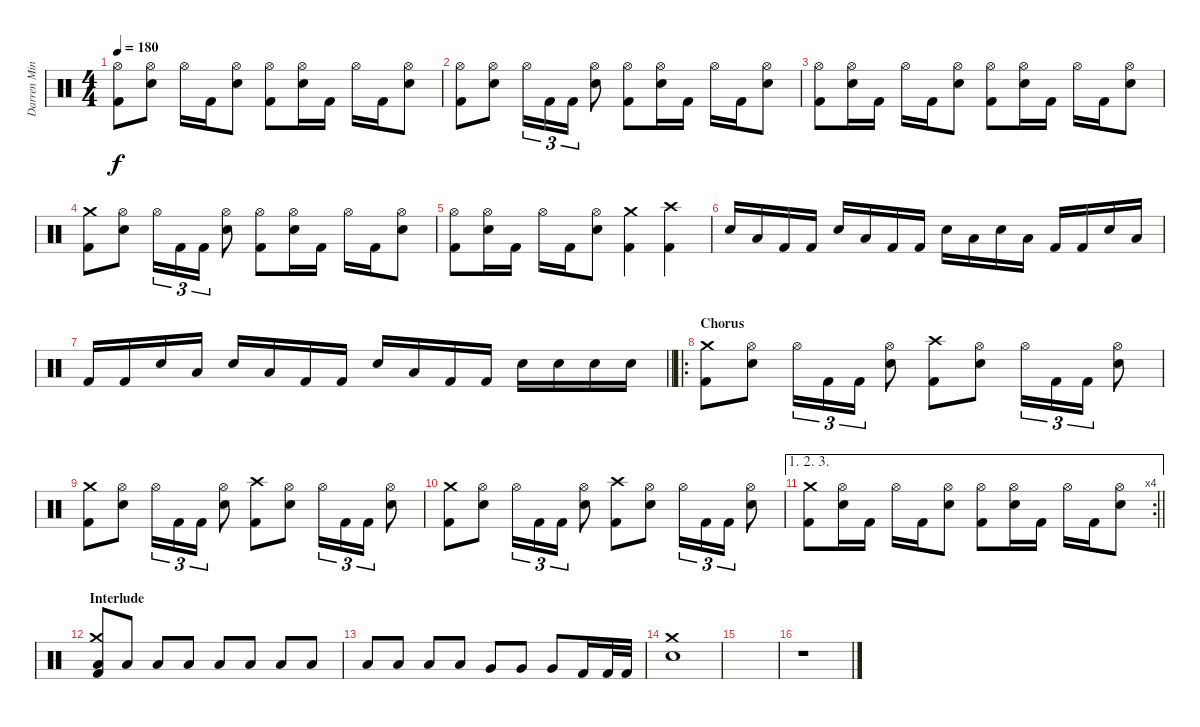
\track ("Darren Minter" "Darren Min") {instrument percussion}
\staff {score}
\articulation defaults
\ts (4 4)
\tempo 180
\clef neutral
\ks c
("Hi-Hat (open)" "Kick (hit) 2").8{dy f} ("Hi-Hat (open)" "Electric Snare (hit)").8 "Hi-Hat (open)".16 "Kick (hit) 2".16 ("Hi-Hat (open)" "Electric Snare (hit)").8 ("Hi-Hat (open)" "Kick (hit) 2").8 ("Hi-Hat (open)" "Electric Snare (hit)").16 "Kick (hit) 2".16 "Hi-Hat (open)".16 "Kick (hit) 2".16 ("Hi-Hat (open)" "Electric Snare (hit)").8 |
("Hi-Hat (open)" "Kick (hit) 2").8 ("Hi-Hat (open)" "Electric Snare (hit)").8 "Hi-Hat (open)".16{tu (3 2)} "Kick (hit) 2".16{tu (3 2)} "Kick (hit) 2".16{tu (3 2)} ("Hi-Hat (open)" "Electric Snare (hit)").8 ("Hi-Hat (open)" "Kick (hit) 2").8 ("Hi-Hat (open)" "Electric Snare (hit)").16 "Kick (hit) 2".16 "Hi-Hat (open)".16 "Kick (hit) 2".16 ("Hi-Hat (open)" "Electric Snare (hit)").8 |
("Hi-Hat (open)" "Kick (hit) 2").8 ("Hi-Hat (open)" "Electric Snare (hit)").16 "Kick (hit) 2".16 "Hi-Hat (open)".16 "Kick (hit) 2".16 ("Hi-Hat (open)" "Electric Snare (hit)").8 ("Hi-Hat (open)" "Kick (hit) 2").8 ("Hi-Hat (open)" "Electric Snare (hit)").16 "Kick (hit) 2".16 "Hi-Hat (open)".16 "Kick (hit) 2".16 ("Hi-Hat (open)" "Electric Snare (hit)").8 |
("Crash medium (hit)" "Kick (hit) 2").8 ("Hi-Hat (open)" "Electric Snare (hit)").8 "Hi-Hat (open)".16{tu (3 2)} "Kick (hit) 2".16{tu (3 2)} "Kick (hit) 2".16{tu (3 2)} ("Hi-Hat (open)" "Electric Snare (hit)").8 ("Hi-Hat (open)" "Kick (hit) 2").8 ("Hi-Hat (open)" "Electric Snare (hit)").16 "Kick (hit) 2".16 "Hi-Hat (open)".16 "Kick (hit) 2".16 ("Hi-Hat (open)" "Electric Snare (hit)").8 |
("Hi-Hat (open)" "Kick (hit) 2").8 ("Hi-Hat (open)" "Electric Snare (hit)").16 "Kick (hit) 2".16 "Hi-Hat (open)".16 "Kick (hit) 2".16 ("Hi-Hat (open)" "Electric Snare (hit)").8 ("Crash medium (hit)" "Kick (hit) 2").4 ("Crash high (hit)" "Kick (hit) 2").4 |
"Electric Snare (hit)".16 "Low Tom (hit)".16 "Kick (hit) 2".16 "Kick (hit) 2".16 "Electric Snare (hit)".16 "Low Tom (hit)".16 "Kick (hit) 2".16 "Kick (hit) 2".16 "Electric Snare (hit)".16 "Low Tom (hit)".16 "Electric Snare (hit)".16 "Low Tom (hit)".16 "Kick (hit) 2".16 "Kick (hit) 2".16 "Electric Snare (hit)".16 "Low Tom (hit)".16 |
\barLineRight lightlight "Kick (hit) 2".16 "Kick (hit) 2".16 "Electric Snare (hit)".16 "Low Tom (hit)".16 "Electric Snare (hit)".16 "Low Tom (hit)".16 "Kick (hit) 2".16 "Kick (hit) 2".16 "Electric Snare (hit)".16 "Low Tom (hit)".16 "Kick (hit) 2".16 "Kick (hit) 2".16 "Electric Snare (hit)".16 "Electric Snare (hit)".16 "Electric Snare (hit)".16 "Electric Snare (hit)".16
|
\ro
\section ("" "Chorus")
("Crash medium (hit)" "Kick (hit) 2").8 ("Hi-Hat (open)" "Electric Snare (hit)").8 "Hi-Hat (open)".16{tu (3 2)} "Kick (hit) 2".16{tu (3 2)} "Kick (hit) 2".16{tu (3 2)} ("Hi-Hat (open)" "Electric Snare (hit)").8 ("Crash high (hit)" "Kick (hit) 2").8 ("Hi-Hat (open)" "Electric Snare (hit)").8 "Hi-Hat (open)".16{tu (3 2)} "Kick (hit) 2".16{tu (3 2)} "Kick (hit) 2".16{tu (3 2)} ("Hi-Hat (open)" "Electric Snare (hit)").8 |
("Crash medium (hit)" "Kick (hit) 2").8 ("Hi-Hat (open)" "Electric Snare (hit)").8 "Hi-Hat (open)".16{tu (3 2)} "Kick (hit) 2".16{tu (3 2)} "Kick (hit) 2".16{tu (3 2)} ("Hi-Hat (open)" "Electric Snare (hit)").8 ("Crash high (hit)" "Kick (hit) 2").8 ("Hi-Hat (open)" "Electric Snare (hit)").8 "Hi-Hat (open)".16{tu (3 2)} "Kick (hit) 2".16{tu (3 2)} "Kick (hit) 2".16{tu (3 2)} ("Hi-Hat (open)" "Electric Snare (hit)").8 |
("Crash medium (hit)" "Kick (hit) 2").8 ("Hi-Hat (open)" "Electric Snare (hit)").8 "Hi-Hat (open)".16{tu (3 2)} "Kick (hit) 2".16{tu (3 2)} "Kick (hit) 2".16{tu (3 2)} ("Hi-Hat (open)" "Electric Snare (hit)").8 ("Crash high (hit)" "Kick (hit) 2").8 ("Hi-Hat (open)" "Electric Snare (hit)").8 "Hi-Hat (open)".16{tu (3 2)} "Kick (hit) 2".16{tu (3 2)} "Kick (hit) 2".16{tu (3 2)} ("Hi-Hat (open)" "Electric Snare (hit)").8 |
\ae (1 2 3)
\rc 4
\barLineRight lightlight
("Crash medium (hit)" "Kick (hit) 2").8 ("Hi-Hat (open)" "Electric Snare (hit)").16 "Kick (hit) 2".16 "Hi-Hat (open)".16 "Kick (hit) 2".16 ("Hi-Hat (open)" "Electric Snare (hit)").8 ("Hi-Hat (open)" "Kick (hit) 2").8 ("Hi-Hat (open)" "Electric Snare (hit)").16 "Kick (hit) 2".16 "Hi-Hat (open)".16 "Kick (hit) 2".16 ("Hi-Hat (open)" "Electric Snare (hit)").8 |
\section ("" "Interlude")
("Crash medium (hit)" "Low Tom (hit)" "Kick (hit) 2").8 "Low Tom (hit)".8 "Low Tom (hit)".8 "Low Tom (hit)".8 "Low Tom (hit)".8 "Low Tom (hit)".8 "Low Tom (hit)".8 "Low Tom (hit)".8 |
"Low Tom (hit)".8 "Low Tom (hit)".8 "Low Tom (hit)".8 "Low Tom (hit)".8 "Very Low Tom (hit)".8 "Very Low Tom (hit)".8 "Very Low Tom (hit)".8 "Kick (hit) 2".16 "Kick (hit) 2".32 "Kick (hit) 2".32 |
("Crash medium (hit)" "Electric Snare (hit)").1 |
|
r.1
